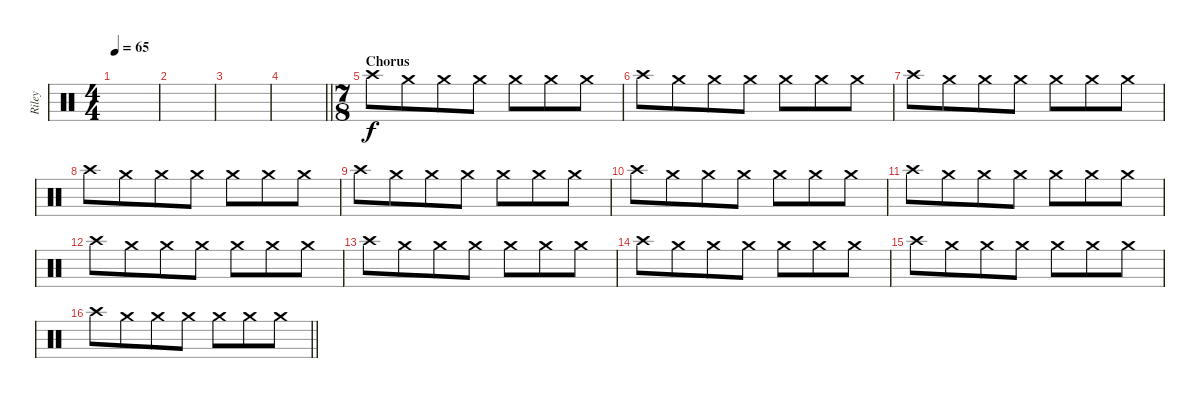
\track ("Riley" "Riley") {instrument percussion}
\staff {score}
\articulation defaults
\ts (4 4)
\tempo 65
\clef neutral
\ks c
|
|
|
\barLineRight lightlight
|
\ts (7 8)
\section ("" "Chorus")
"Crash high (hit)".8 "Crash medium (hit)".8 "Crash medium (hit)".8 "Crash medium (hit)".8 "Crash medium (hit)".8 "Crash medium (hit)".8 "Crash medium (hit)".8 |
"Crash high (hit)".8 "Crash medium (hit)".8 "Crash medium (hit)".8 "Crash medium (hit)".8 "Crash medium (hit)".8 "Crash medium (hit)".8 "Crash medium (hit)".8 |
"Crash high (hit)".8 "Crash medium (hit)".8 "Crash medium (hit)".8 "Crash medium (hit)".8 "Crash medium (hit)".8 "Crash medium (hit)".8 "Crash medium (hit)".8 |
"Crash high (hit)".8 "Crash medium (hit)".8 "Crash medium (hit)".8 "Crash medium (hit)".8 "Crash medium (hit)".8 "Crash medium (hit)".8 "Crash medium (hit)".8 |
"Crash high (hit)".8 "Crash medium (hit)".8 "Crash medium (hit)".8 "Crash medium (hit)".8 "Crash medium (hit)".8 "Crash medium (hit)".8 "Crash medium (hit)".8 |
"Crash high (hit)".8 "Crash medium (hit)".8 "Crash medium (hit)".8 "Crash medium (hit)".8 "Crash medium (hit)".8 "Crash medium (hit)".8 "Crash medium (hit)".8 |
"Crash high (hit)".8 "Crash medium (hit)".8 "Crash medium (hit)".8 "Crash medium (hit)".8 "Crash medium (hit)".8 "Crash medium (hit)".8 "Crash medium (hit)".8 |
"Crash high (hit)".8 "Crash medium (hit)".8 "Crash medium (hit)".8 "Crash medium (hit)".8 "Crash medium (hit)".8 "Crash medium (hit)".8 "Crash medium (hit)".8 |
"Crash high (hit)".8 "Crash medium (hit)".8 "Crash medium (hit)".8 "Crash medium (hit)".8 "Crash medium (hit)".8 "Crash medium (hit)".8 "Crash medium (hit)".8 |
"Crash high (hit)".8 "Crash medium (hit)".8 "Crash medium (hit)".8 "Crash medium (hit)".8 "Crash medium (hit)".8 "Crash medium (hit)".8 "Crash medium (hit)".8 |
"Crash high (hit)".8 "Crash medium (hit)".8 "Crash medium (hit)".8 "Crash medium (hit)".8 "Crash medium (hit)".8 "Crash medium (hit)".8 "Crash medium (hit)".8 |
\barLineRight lightlight "Crash high (hit)".8 "Crash medium (hit)".8 "Crash medium (hit)".8 "Crash medium (hit)".8 "Crash medium (hit)".8 "Crash medium (hit)".8 "Crash medium (hit)".8
